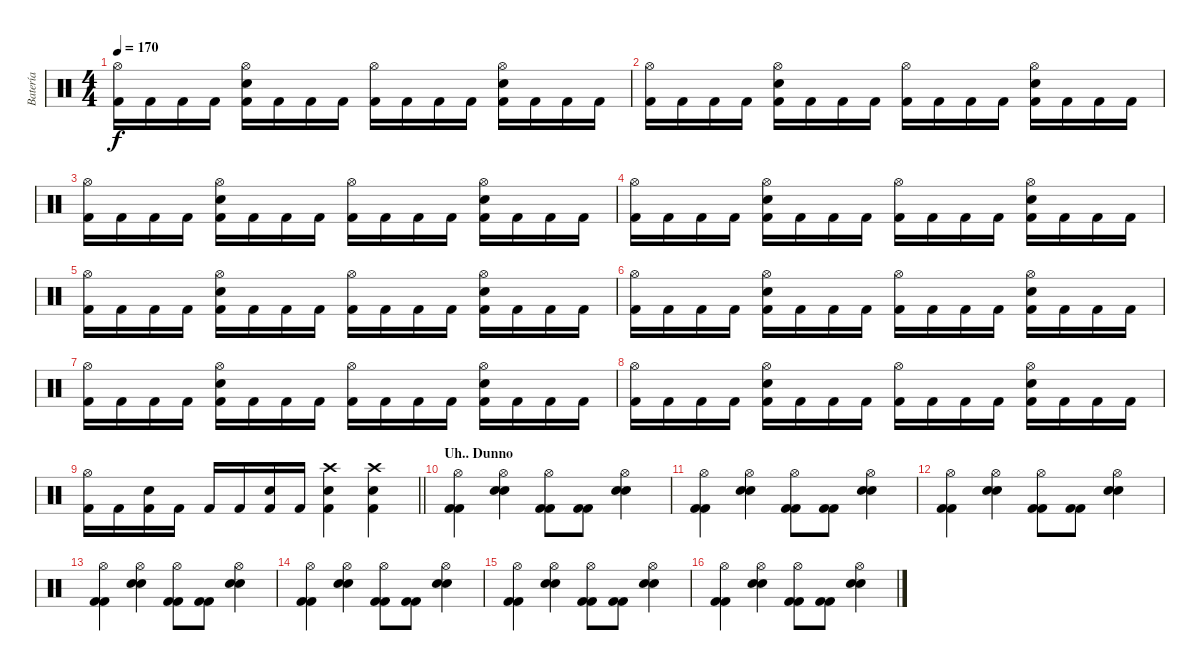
\track ("Batería" "Batería") {instrument percussion}
\staff {score}
\articulation defaults
\ts (4 4)
\tempo 170
\clef neutral
\ks c
("Hi-Hat (open)" "Kick (hit) 2").16{dy f} "Kick (hit) 2".16 "Kick (hit) 2".16 "Kick (hit) 2".16 ("Hi-Hat (open)" "Snare (hit) 2" "Kick (hit) 2").16 "Kick (hit) 2".16 "Kick (hit) 2".16 "Kick (hit) 2".16 ("Hi-Hat (open)" "Kick (hit) 2").16 "Kick (hit) 2".16 "Kick (hit) 2".16 "Kick (hit) 2".16 ("Hi-Hat (open)" "Snare (hit) 2" "Kick (hit) 2").16 "Kick (hit) 2".16 "Kick (hit) 2".16 "Kick (hit) 2".16 |
("Hi-Hat (open)" "Kick (hit) 2").16 "Kick (hit) 2".16 "Kick (hit) 2".16 "Kick (hit) 2".16 ("Hi-Hat (open)" "Snare (hit) 2" "Kick (hit) 2").16 "Kick (hit) 2".16 "Kick (hit) 2".16 "Kick (hit) 2".16 ("Hi-Hat (open)" "Kick (hit) 2").16 "Kick (hit) 2".16 "Kick (hit) 2".16 "Kick (hit) 2".16 ("Hi-Hat (open)" "Snare (hit) 2" "Kick (hit) 2").16 "Kick (hit) 2".16 "Kick (hit) 2".16 "Kick (hit) 2".16 |
("Hi-Hat (open)" "Kick (hit) 2").16 "Kick (hit) 2".16 "Kick (hit) 2".16 "Kick (hit) 2".16 ("Hi-Hat (open)" "Snare (hit) 2" "Kick (hit) 2").16 "Kick (hit) 2".16 "Kick (hit) 2".16 "Kick (hit) 2".16 ("Hi-Hat (open)" "Kick (hit) 2").16 "Kick (hit) 2".16 "Kick (hit) 2".16 "Kick (hit) 2".16 ("Hi-Hat (open)" "Snare (hit) 2" "Kick (hit) 2").16 "Kick (hit) 2".16 "Kick (hit) 2".16 "Kick (hit) 2".16 |
("Hi-Hat (open)" "Kick (hit) 2").16 "Kick (hit) 2".16 "Kick (hit) 2".16 "Kick (hit) 2".16 ("Hi-Hat (open)" "Snare (hit) 2" "Kick (hit) 2").16 "Kick (hit) 2".16 "Kick (hit) 2".16 "Kick (hit) 2".16 ("Hi-Hat (open)" "Kick (hit) 2").16 "Kick (hit) 2".16 "Kick (hit) 2".16 "Kick (hit) 2".16 ("Hi-Hat (open)" "Snare (hit) 2" "Kick (hit) 2").16 "Kick (hit) 2".16 "Kick (hit) 2".16 "Kick (hit) 2".16 |
("Hi-Hat (open)" "Kick (hit) 2").16 "Kick (hit) 2".16 "Kick (hit) 2".16 "Kick (hit) 2".16 ("Hi-Hat (open)" "Snare (hit) 2" "Kick (hit) 2").16 "Kick (hit) 2".16 "Kick (hit) 2".16 "Kick (hit) 2".16 ("Hi-Hat (open)" "Kick (hit) 2").16 "Kick (hit) 2".16 "Kick (hit) 2".16 "Kick (hit) 2".16 ("Hi-Hat (open)" "Snare (hit) 2" "Kick (hit) 2").16 "Kick (hit) 2".16 "Kick (hit) 2".16 "Kick (hit) 2".16 |
("Hi-Hat (open)" "Kick (hit) 2").16 "Kick (hit) 2".16 "Kick (hit) 2".16 "Kick (hit) 2".16 ("Hi-Hat (open)" "Snare (hit) 2" "Kick (hit) 2").16 "Kick (hit) 2".16 "Kick (hit) 2".16 "Kick (hit) 2".16 ("Hi-Hat (open)" "Kick (hit) 2").16 "Kick (hit) 2".16 "Kick (hit) 2".16 "Kick (hit) 2".16 ("Hi-Hat (open)" "Snare (hit) 2" "Kick (hit) 2").16 "Kick (hit) 2".16 "Kick (hit) 2".16 "Kick (hit) 2".16 |
("Hi-Hat (open)" "Kick (hit) 2").16 "Kick (hit) 2".16 "Kick (hit) 2".16 "Kick (hit) 2".16 ("Hi-Hat (open)" "Snare (hit) 2" "Kick (hit) 2").16 "Kick (hit) 2".16 "Kick (hit) 2".16 "Kick (hit) 2".16 ("Hi-Hat (open)" "Kick (hit) 2").16 "Kick (hit) 2".16 "Kick (hit) 2".16 "Kick (hit) 2".16 ("Hi-Hat (open)" "Snare (hit) 2" "Kick (hit) 2").16 "Kick (hit) 2".16 "Kick (hit) 2".16 "Kick (hit) 2".16 |
("Hi-Hat (open)" "Kick (hit) 2").16 "Kick (hit) 2".16 "Kick (hit) 2".16 "Kick (hit) 2".16 ("Hi-Hat (open)" "Snare (hit) 2" "Kick (hit) 2").16 "Kick (hit) 2".16 "Kick (hit) 2".16 "Kick (hit) 2".16 ("Hi-Hat (open)" "Kick (hit) 2").16 "Kick (hit) 2".16 "Kick (hit) 2".16 "Kick (hit) 2".16 ("Hi-Hat (open)" "Snare (hit) 2" "Kick (hit) 2").16 "Kick (hit) 2".16 "Kick (hit) 2".16 "Kick (hit) 2".16 |
\barLineRight lightlight
("Hi-Hat (open)" "Kick (hit) 2").16 "Kick (hit) 2".16 ("Snare (hit) 2" "Kick (hit) 2").16 "Kick (hit) 2".16 "Kick (hit) 2".16 "Kick (hit) 2".16 ("Snare (hit) 2" "Kick (hit) 2").16 "Kick (hit) 2".16 ("Crash high (hit)" "Snare (hit) 2" "Kick (hit) 2").4 ("Crash high (hit)" "Snare (hit) 2" "Kick (hit) 2").4 |
\section ("" "Uh.. Dunno")
("Hi-Hat (open)" "Kick (hit) 2" "Kick (hit) 2").4 ("Hi-Hat (open)" "Snare (hit) 2" "Snare (hit) 2").4 ("Hi-Hat (open)" "Kick (hit) 2" "Kick (hit) 2").8 ("Kick (hit) 2" "Kick (hit) 2").8 ("Hi-Hat (open)" "Snare (hit) 2" "Snare (hit) 2").4 |
("Hi-Hat (open)" "Kick (hit) 2" "Kick (hit) 2").4 ("Hi-Hat (open)" "Snare (hit) 2" "Snare (hit) 2").4 ("Hi-Hat (open)" "Kick (hit) 2" "Kick (hit) 2").8 ("Kick (hit) 2" "Kick (hit) 2").8 ("Hi-Hat (open)" "Snare (hit) 2" "Snare (hit) 2").4 |
("Hi-Hat (open)" "Kick (hit) 2" "Kick (hit) 2").4 ("Hi-Hat (open)" "Snare (hit) 2" "Snare (hit) 2").4 ("Hi-Hat (open)" "Kick (hit) 2" "Kick (hit) 2").8 ("Kick (hit) 2" "Kick (hit) 2").8 ("Hi-Hat (open)" "Snare (hit) 2" "Snare (hit) 2").4 |
("Hi-Hat (open)" "Kick (hit) 2" "Kick (hit) 2").4 ("Hi-Hat (open)" "Snare (hit) 2" "Snare (hit) 2").4 ("Hi-Hat (open)" "Kick (hit) 2" "Kick (hit) 2").8 ("Kick (hit) 2" "Kick (hit) 2").8 ("Hi-Hat (open)" "Snare (hit) 2" "Snare (hit) 2").4 |
("Hi-Hat (open)" "Kick (hit) 2" "Kick (hit) 2").4 ("Hi-Hat (open)" "Snare (hit) 2" "Snare (hit) 2").4 ("Hi-Hat (open)" "Kick (hit) 2" "Kick (hit) 2").8 ("Kick (hit) 2" "Kick (hit) 2").8 ("Hi-Hat (open)" "Snare (hit) 2" "Snare (hit) 2").4 |
("Hi-Hat (open)" "Kick (hit) 2" "Kick (hit) 2").4 ("Hi-Hat (open)" "Snare (hit) 2" "Snare (hit) 2").4 ("Hi-Hat (open)" "Kick (hit) 2" "Kick (hit) 2").8 ("Kick (hit) 2" "Kick (hit) 2").8 ("Hi-Hat (open)" "Snare (hit) 2" "Snare (hit) 2").4 |
("Hi-Hat (open)" "Kick (hit) 2" "Kick (hit) 2").4 ("Hi-Hat (open)" "Snare (hit) 2" "Snare (hit) 2").4 ("Hi-Hat (open)" "Kick (hit) 2" "Kick (hit) 2").8 ("Kick (hit) 2" "Kick (hit) 2").8 ("Hi-Hat (open)" "Snare (hit) 2" "Snare (hit) 2").4
